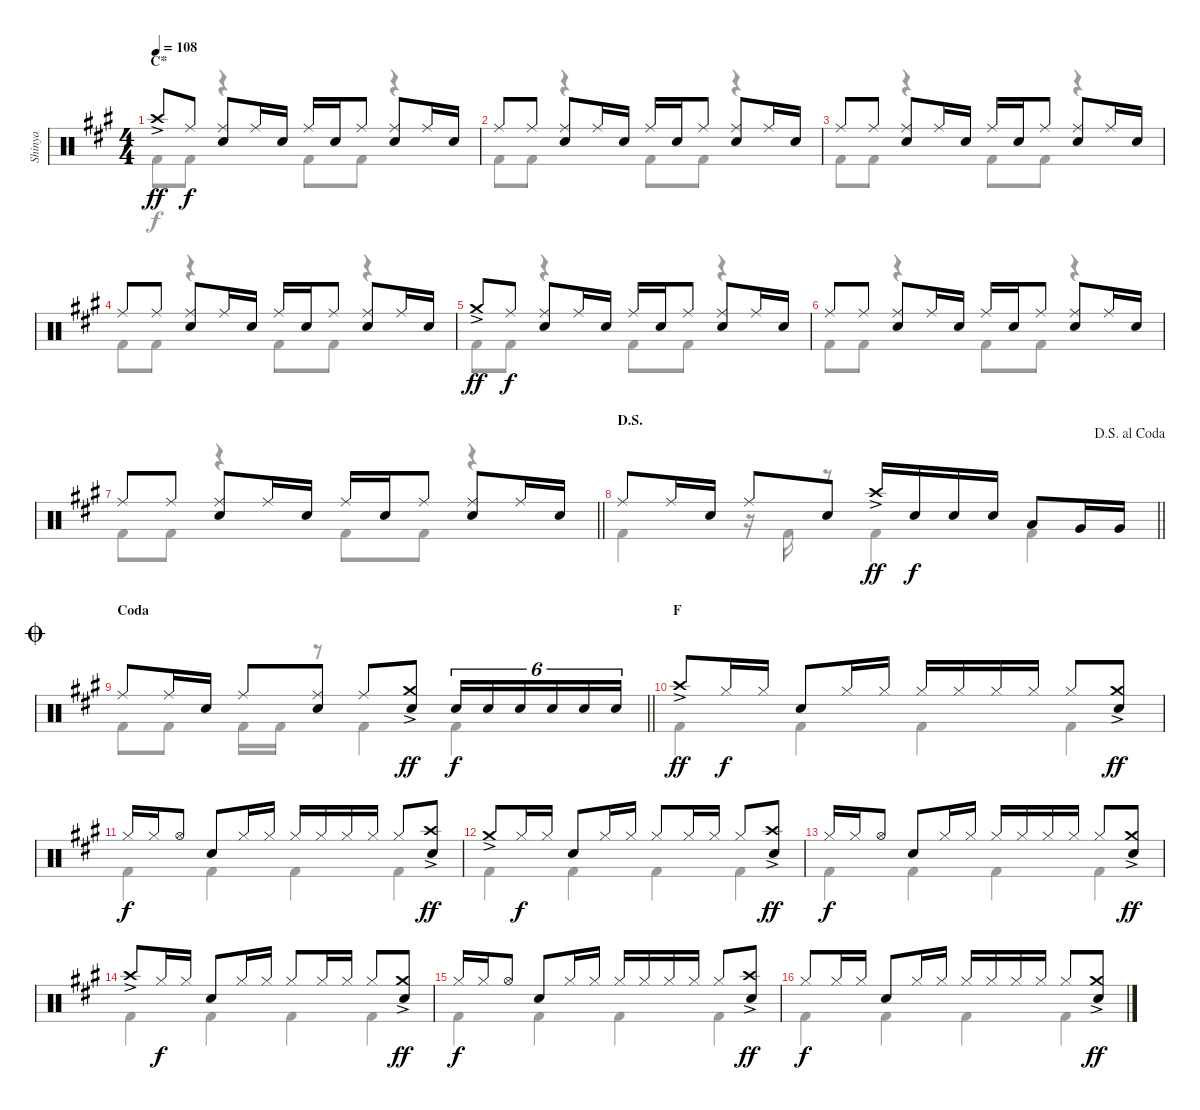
\track ("Shinya" "Shinya") {instrument percussion}
\staff {score}
\articulation defaults
\voice
\ts (4 4)
\section ("" "C*")
\tempo 108
\clef neutral
\ks f#minor "Crash high (hit)"{ac}.8{dy ff} "Ride (middle)".8{dy f}
("Ride (middle)" "Snare (hit) 2").8 "Ride (middle)".16 "Snare (hit) 2".16 "Ride (middle)".16 "Snare (hit) 2".16 "Ride (middle)".8 ("Ride (middle)" "Snare (hit) 2").8 "Ride (middle)".16 "Snare (hit) 2".16 |
"Ride (middle)".8 "Ride (middle)".8 ("Ride (middle)" "Snare (hit) 2").8 "Ride (middle)".16 "Snare (hit) 2".16 "Ride (middle)".16 "Snare (hit) 2".16 "Ride (middle)".8 ("Ride (middle)" "Snare (hit) 2").8 "Ride (middle)".16 "Snare (hit) 2".16 |
"Ride (middle)".8 "Ride (middle)".8 ("Ride (middle)" "Snare (hit) 2").8 "Ride (middle)".16 "Snare (hit) 2".16 "Ride (middle)".16 "Snare (hit) 2".16 "Ride (middle)".8 ("Ride (middle)" "Snare (hit) 2").8 "Ride (middle)".16 "Snare (hit) 2".16 |
"Ride (middle)".8 "Ride (middle)".8 ("Ride (middle)" "Snare (hit) 2").8 "Ride (middle)".16 "Snare (hit) 2".16 "Ride (middle)".16 "Snare (hit) 2".16 "Ride (middle)".8 ("Ride (middle)" "Snare (hit) 2").8 "Ride (middle)".16 "Snare (hit) 2".16 |
"Crash medium (hit)"{ac}.8{dy ff} "Ride (middle)".8{dy f} ("Ride (middle)" "Snare (hit) 2").8 "Ride (middle)".16 "Snare (hit) 2".16 "Ride (middle)".16 "Snare (hit) 2".16 "Ride (middle)".8 ("Ride (middle)" "Snare (hit) 2").8 "Ride (middle)".16 "Snare (hit) 2".16 |
"Ride (middle)".8 "Ride (middle)".8 ("Ride (middle)" "Snare (hit) 2").8 "Ride (middle)".16 "Snare (hit) 2".16 "Ride (middle)".16 "Snare (hit) 2".16 "Ride (middle)".8 ("Ride (middle)" "Snare (hit) 2").8 "Ride (middle)".16 "Snare (hit) 2".16 |
\barLineRight lightlight "Ride (middle)".8 "Ride (middle)".8
("Ride (middle)" "Snare (hit) 2").8 "Ride (middle)".16 "Snare (hit) 2".16 "Ride (middle)".16 "Snare (hit) 2".16 "Ride (middle)".8 ("Ride (middle)" "Snare (hit) 2").8 "Ride (middle)".16 "Snare (hit) 2".16 |
\section ("" "D.S.")
\jump dalsegnoalcoda
\barLineRight lightlight "Ride (middle)".8 "Ride (middle)".16 "Snare (hit) 2".16 "Ride (middle)".8 "Snare (hit) 2".8 "Crash high (hit)"{ac}.16{dy ff} "Snare (hit) 2".16{dy f} "Snare (hit) 2".16 "Snare (hit) 2".16 "Low Tom (hit)".8 "Very Low Tom (hit)".16 "Very Low Tom (hit)".16
|
\section ("" "Coda")
\jump coda
\barLineRight lightlight "Ride (middle)".8 "Ride (middle)".16 "Snare (hit) 2".16 "Ride (middle)".8
("Ride (middle)" "Snare (hit) 2").8 "Ride (middle)".8 ("Crash medium (hit)"{ac} "Snare (hit) 2").8{dy ff} "Snare (hit) 2".16{tu (6 4) dy f} "Snare (hit) 2".16{tu (6 4)} "Snare (hit) 2".16{tu (6 4)} "Snare (hit) 2".16{tu (6 4)} "Snare (hit) 2".16{tu (6 4)} "Snare (hit) 2".16{tu (6 4)} |
\section ("" "F")
"Crash high (hit)"{ac}.8{dy ff} "Hi-Hat (closed)".16{dy f} "Hi-Hat (closed)".16 "Snare (hit) 2".8 "Hi-Hat (closed)".16 "Hi-Hat (closed)".16 "Hi-Hat (closed)".16 "Hi-Hat (closed)".16 "Hi-Hat (closed)".16 "Hi-Hat (closed)".16 "Hi-Hat (closed)".8 ("Crash medium (hit)"{ac} "Snare (hit) 2").8{dy ff} |
"Hi-Hat (closed)".16{dy f} "Hi-Hat (closed)".16 "Hi-Hat (open)".8 "Snare (hit) 2".8 "Hi-Hat (closed)".16 "Hi-Hat (closed)".16 "Hi-Hat (closed)".16 "Hi-Hat (closed)".16 "Hi-Hat (closed)".16 "Hi-Hat (closed)".16 "Hi-Hat (closed)".8 ("Crash high (hit)"{ac} "Snare (hit) 2").8{dy ff} |
"Crash medium (hit)"{ac}.8 "Hi-Hat (closed)".16{dy f} "Hi-Hat (closed)".16 "Snare (hit) 2".8 "Hi-Hat (closed)".16 "Hi-Hat (closed)".16 "Hi-Hat (closed)".8 "Hi-Hat (closed)".16 "Hi-Hat (closed)".16 "Hi-Hat (closed)".8 ("Crash high (hit)"{ac} "Snare (hit) 2").8{dy ff} |
"Hi-Hat (closed)".16{dy f} "Hi-Hat (closed)".16 "Hi-Hat (open)".8 "Snare (hit) 2".8 "Hi-Hat (closed)".16 "Hi-Hat (closed)".16 "Hi-Hat (closed)".16 "Hi-Hat (closed)".16 "Hi-Hat (closed)".16 "Hi-Hat (closed)".16 "Hi-Hat (closed)".8 ("Crash medium (hit)"{ac} "Snare (hit) 2").8{dy ff} |
"Crash high (hit)"{ac}.8 "Hi-Hat (closed)".16{dy f} "Hi-Hat (closed)".16 "Snare (hit) 2".8 "Hi-Hat (closed)".16 "Hi-Hat (closed)".16 "Hi-Hat (closed)".8 "Hi-Hat (closed)".16 "Hi-Hat (closed)".16 "Hi-Hat (closed)".8 ("Crash medium (hit)"{ac} "Snare (hit) 2").8{dy ff} |
"Hi-Hat (closed)".16{dy f} "Hi-Hat (closed)".16 "Hi-Hat (open)".8 "Snare (hit) 2".8 "Hi-Hat (closed)".16 "Hi-Hat (closed)".16 "Hi-Hat (closed)".16 "Hi-Hat (closed)".16 "Hi-Hat (closed)".16 "Hi-Hat (closed)".16 "Hi-Hat (closed)".8 ("Crash high (hit)"{ac} "Snare (hit) 2").8{dy ff} |
"Hi-Hat (closed)".8{dy f} "Hi-Hat (closed)".16 "Hi-Hat (closed)".16 "Snare (hit) 2".8 "Hi-Hat (closed)".16 "Hi-Hat (closed)".16 "Hi-Hat (closed)".16 "Hi-Hat (closed)".16 "Hi-Hat (closed)".16 "Hi-Hat (closed)".16 "Hi-Hat (closed)".8 ("Crash medium (hit)"{ac} "Snare (hit) 2").8{dy ff}
\voice
\clef neutral
\ottava regular
\simile none
\ks f#minor "Kick (hit) 2".8{dy f} "Kick (hit) 2".8
r.4 "Kick (hit) 2".8 "Kick (hit) 2".8 r.4 |
"Kick (hit) 2".8 "Kick (hit) 2".8 r.4 "Kick (hit) 2".8 "Kick (hit) 2".8 r.4 |
"Kick (hit) 2".8 "Kick (hit) 2".8 r.4 "Kick (hit) 2".8 "Kick (hit) 2".8 r.4 |
"Kick (hit) 2".8 "Kick (hit) 2".8 r.4 "Kick (hit) 2".8 "Kick (hit) 2".8 r.4 |
"Kick (hit) 2".8 "Kick (hit) 2".8 r.4 "Kick (hit) 2".8 "Kick (hit) 2".8 r.4 |
"Kick (hit) 2".8 "Kick (hit) 2".8 r.4 "Kick (hit) 2".8 "Kick (hit) 2".8 r.4 |
\barLineRight lightlight "Kick (hit) 2".8 "Kick (hit) 2".8
r.4 "Kick (hit) 2".8 "Kick (hit) 2".8 r.4 |
\barLineRight lightlight "Kick (hit) 2".4
r.16 "Kick (hit) 2".16 r.8 "Kick (hit) 2".4 "Kick (hit) 2".4 |
\barLineRight lightlight "Kick (hit) 2".8 "Kick (hit) 2".8 "Kick (hit) 2".16 "Kick (hit) 2".16
r.8 "Kick (hit) 2".4 "Kick (hit) 2".4 |
"Kick (hit) 2".4 "Kick (hit) 2".4 "Kick (hit) 2".4 "Kick (hit) 2".4 |
"Kick (hit) 2".4 "Kick (hit) 2".4 "Kick (hit) 2".4 "Kick (hit) 2".4 |
"Kick (hit) 2".4 "Kick (hit) 2".4 "Kick (hit) 2".4 "Kick (hit) 2".4 |
"Kick (hit) 2".4 "Kick (hit) 2".4 "Kick (hit) 2".4 "Kick (hit) 2".4 |
"Kick (hit) 2".4 "Kick (hit) 2".4 "Kick (hit) 2".4 "Kick (hit) 2".4 |
"Kick (hit) 2".4 "Kick (hit) 2".4 "Kick (hit) 2".4 "Kick (hit) 2".4 |
"Kick (hit) 2".4 "Kick (hit) 2".4 "Kick (hit) 2".4 "Kick (hit) 2".4
